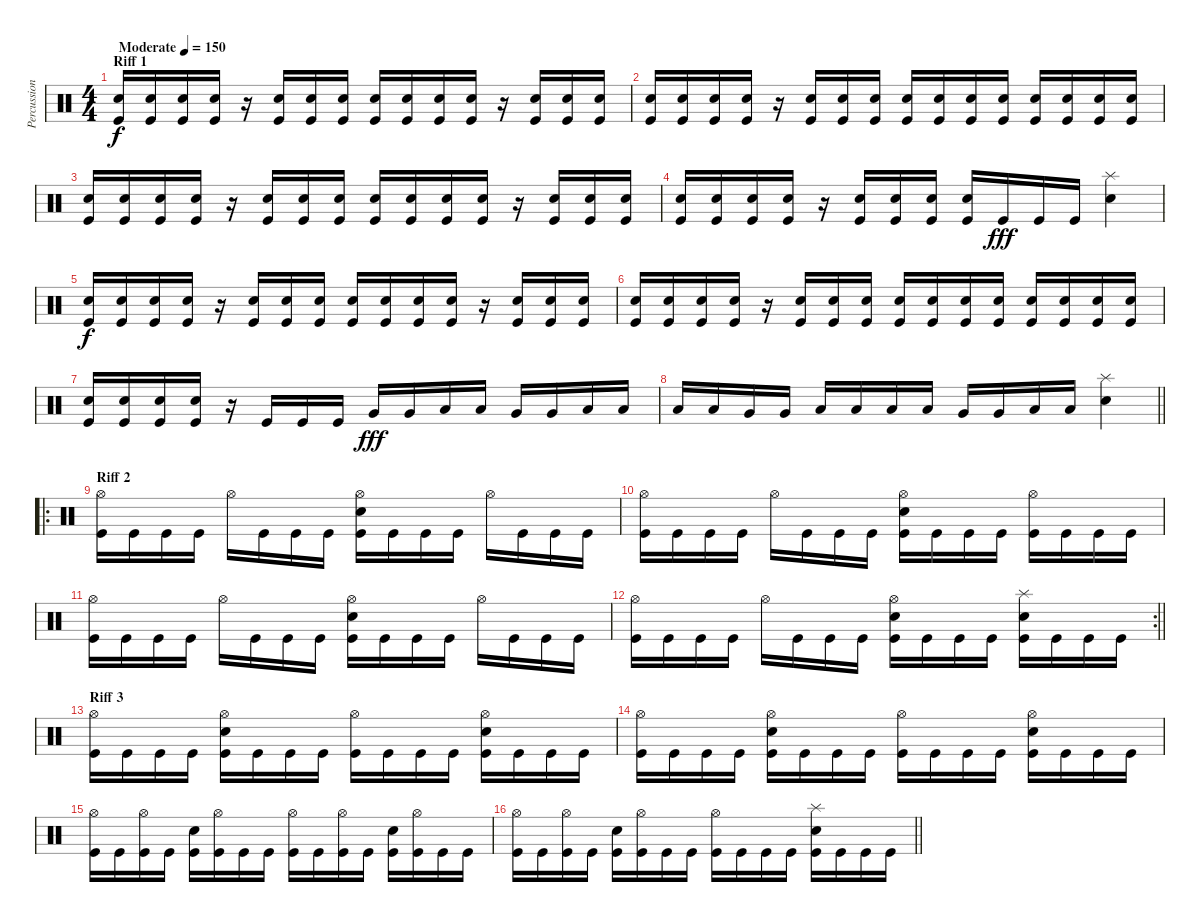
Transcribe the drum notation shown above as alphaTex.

\track ("Percussion" "Percussion") {instrument percussion}
\staff {score}
\articulation defaults
\ts (4 4)
\section ("" "Riff 1")
\tempo (150 "Moderate")
\clef neutral
\ks c
("Electric Snare (hit)" "Kick (hit)").16{dy f} ("Electric Snare (hit)" "Kick (hit)").16 ("Electric Snare (hit)" "Kick (hit)").16 ("Electric Snare (hit)" "Kick (hit)").16 r.16 ("Electric Snare (hit)" "Kick (hit)").16 ("Electric Snare (hit)" "Kick (hit)").16 ("Electric Snare (hit)" "Kick (hit)").16 ("Electric Snare (hit)" "Kick (hit)").16 ("Electric Snare (hit)" "Kick (hit)").16 ("Electric Snare (hit)" "Kick (hit)").16 ("Electric Snare (hit)" "Kick (hit)").16 r.16 ("Electric Snare (hit)" "Kick (hit)").16 ("Electric Snare (hit)" "Kick (hit)").16 ("Electric Snare (hit)" "Kick (hit)").16 |
("Electric Snare (hit)" "Kick (hit)").16 ("Electric Snare (hit)" "Kick (hit)").16 ("Electric Snare (hit)" "Kick (hit)").16 ("Electric Snare (hit)" "Kick (hit)").16 r.16 ("Electric Snare (hit)" "Kick (hit)").16 ("Electric Snare (hit)" "Kick (hit)").16 ("Electric Snare (hit)" "Kick (hit)").16 ("Electric Snare (hit)" "Kick (hit)").16 ("Electric Snare (hit)" "Kick (hit)").16 ("Electric Snare (hit)" "Kick (hit)").16 ("Electric Snare (hit)" "Kick (hit)").16 ("Electric Snare (hit)" "Kick (hit)").16 ("Electric Snare (hit)" "Kick (hit)").16 ("Electric Snare (hit)" "Kick (hit)").16 ("Electric Snare (hit)" "Kick (hit)").16 |
("Electric Snare (hit)" "Kick (hit)").16 ("Electric Snare (hit)" "Kick (hit)").16 ("Electric Snare (hit)" "Kick (hit)").16 ("Electric Snare (hit)" "Kick (hit)").16 r.16 ("Electric Snare (hit)" "Kick (hit)").16 ("Electric Snare (hit)" "Kick (hit)").16 ("Electric Snare (hit)" "Kick (hit)").16 ("Electric Snare (hit)" "Kick (hit)").16 ("Electric Snare (hit)" "Kick (hit)").16 ("Electric Snare (hit)" "Kick (hit)").16 ("Electric Snare (hit)" "Kick (hit)").16 r.16 ("Electric Snare (hit)" "Kick (hit)").16 ("Electric Snare (hit)" "Kick (hit)").16 ("Electric Snare (hit)" "Kick (hit)").16 |
("Electric Snare (hit)" "Kick (hit)").16 ("Electric Snare (hit)" "Kick (hit)").16 ("Electric Snare (hit)" "Kick (hit)").16 ("Electric Snare (hit)" "Kick (hit)").16 r.16 ("Electric Snare (hit)" "Kick (hit)").16 ("Electric Snare (hit)" "Kick (hit)").16 ("Electric Snare (hit)" "Kick (hit)").16 ("Electric Snare (hit)" "Kick (hit)").16 "Kick (hit)".16{dy fff} "Kick (hit)".16 "Kick (hit)".16 ("Splash (hit)" "Electric Snare (hit)").4 |
("Electric Snare (hit)" "Kick (hit)").16{dy f} ("Electric Snare (hit)" "Kick (hit)").16 ("Electric Snare (hit)" "Kick (hit)").16 ("Electric Snare (hit)" "Kick (hit)").16 r.16 ("Electric Snare (hit)" "Kick (hit)").16 ("Electric Snare (hit)" "Kick (hit)").16 ("Electric Snare (hit)" "Kick (hit)").16 ("Electric Snare (hit)" "Kick (hit)").16 ("Electric Snare (hit)" "Kick (hit)").16 ("Electric Snare (hit)" "Kick (hit)").16 ("Electric Snare (hit)" "Kick (hit)").16 r.16 ("Electric Snare (hit)" "Kick (hit)").16 ("Electric Snare (hit)" "Kick (hit)").16 ("Electric Snare (hit)" "Kick (hit)").16 |
("Electric Snare (hit)" "Kick (hit)").16 ("Electric Snare (hit)" "Kick (hit)").16 ("Electric Snare (hit)" "Kick (hit)").16 ("Electric Snare (hit)" "Kick (hit)").16 r.16 ("Electric Snare (hit)" "Kick (hit)").16 ("Electric Snare (hit)" "Kick (hit)").16 ("Electric Snare (hit)" "Kick (hit)").16 ("Electric Snare (hit)" "Kick (hit)").16 ("Electric Snare (hit)" "Kick (hit)").16 ("Electric Snare (hit)" "Kick (hit)").16 ("Electric Snare (hit)" "Kick (hit)").16 ("Electric Snare (hit)" "Kick (hit)").16 ("Electric Snare (hit)" "Kick (hit)").16 ("Electric Snare (hit)" "Kick (hit)").16 ("Electric Snare (hit)" "Kick (hit)").16 |
("Electric Snare (hit)" "Kick (hit)").16 ("Electric Snare (hit)" "Kick (hit)").16 ("Electric Snare (hit)" "Kick (hit)").16 ("Electric Snare (hit)" "Kick (hit)").16 r.16 "Kick (hit)".16 "Kick (hit)".16 "Kick (hit)".16 "Very Low Tom (hit)".16{dy fff} "Very Low Tom (hit)".16 "Low Floor Tom (hit)".16 "Low Floor Tom (hit)".16 "Very Low Tom (hit)".16 "Very Low Tom (hit)".16 "Low Floor Tom (hit)".16 "Low Floor Tom (hit)".16 |
\barLineRight lightlight "Low Tom (hit)".16 "Low Tom (hit)".16 "Very Low Tom (hit)".16 "Very Low Tom (hit)".16 "Low Floor Tom (hit)".16 "Low Floor Tom (hit)".16 "Low Tom (hit)".16 "Low Tom (hit)".16 "Very Low Tom (hit)".16 "Very Low Tom (hit)".16 "Low Floor Tom (hit)".16 "Low Floor Tom (hit)".16
("Splash (hit)" "Electric Snare (hit)").4 |
\ro
\section ("" "Riff 2")
("Hi-Hat (open)" "Kick (hit)").16 "Kick (hit)".16 "Kick (hit)".16 "Kick (hit)".16 "Hi-Hat (open)".16 "Kick (hit)".16 "Kick (hit)".16 "Kick (hit)".16 ("Hi-Hat (open)" "Electric Snare (hit)" "Kick (hit)").16 "Kick (hit)".16 "Kick (hit)".16 "Kick (hit)".16 "Hi-Hat (open)".16 "Kick (hit)".16 "Kick (hit)".16 "Kick (hit)".16 |
("Hi-Hat (open)" "Kick (hit)").16 "Kick (hit)".16 "Kick (hit)".16 "Kick (hit)".16 "Hi-Hat (open)".16 "Kick (hit)".16 "Kick (hit)".16 "Kick (hit)".16 ("Hi-Hat (open)" "Electric Snare (hit)" "Kick (hit)").16 "Kick (hit)".16 "Kick (hit)".16 "Kick (hit)".16 ("Hi-Hat (open)" "Kick (hit)").16 "Kick (hit)".16 "Kick (hit)".16 "Kick (hit)".16 |
("Hi-Hat (open)" "Kick (hit)").16 "Kick (hit)".16 "Kick (hit)".16 "Kick (hit)".16 "Hi-Hat (open)".16 "Kick (hit)".16 "Kick (hit)".16 "Kick (hit)".16 ("Hi-Hat (open)" "Electric Snare (hit)" "Kick (hit)").16 "Kick (hit)".16 "Kick (hit)".16 "Kick (hit)".16 "Hi-Hat (open)".16 "Kick (hit)".16 "Kick (hit)".16 "Kick (hit)".16 |
\rc 2
\barLineRight lightlight
("Hi-Hat (open)" "Kick (hit)").16 "Kick (hit)".16 "Kick (hit)".16 "Kick (hit)".16 "Hi-Hat (open)".16 "Kick (hit)".16 "Kick (hit)".16 "Kick (hit)".16 ("Hi-Hat (open)" "Electric Snare (hit)" "Kick (hit)").16 "Kick (hit)".16 "Kick (hit)".16 "Kick (hit)".16 ("Splash (hit)" "Electric Snare (hit)" "Kick (hit)").16 "Kick (hit)".16 "Kick (hit)".16 "Kick (hit)".16 |
\section ("" "Riff 3")
("Hi-Hat (open)" "Kick (hit)").16 "Kick (hit)".16 "Kick (hit)".16 "Kick (hit)".16 ("Hi-Hat (open)" "Electric Snare (hit)" "Kick (hit)").16 "Kick (hit)".16 "Kick (hit)".16 "Kick (hit)".16 ("Hi-Hat (open)" "Kick (hit)").16 "Kick (hit)".16 "Kick (hit)".16 "Kick (hit)".16 ("Hi-Hat (open)" "Electric Snare (hit)" "Kick (hit)").16 "Kick (hit)".16 "Kick (hit)".16 "Kick (hit)".16 |
("Hi-Hat (open)" "Kick (hit)").16 "Kick (hit)".16 "Kick (hit)".16 "Kick (hit)".16 ("Hi-Hat (open)" "Electric Snare (hit)" "Kick (hit)").16 "Kick (hit)".16 "Kick (hit)".16 "Kick (hit)".16 ("Hi-Hat (open)" "Kick (hit)").16 "Kick (hit)".16 "Kick (hit)".16 "Kick (hit)".16 ("Hi-Hat (open)" "Electric Snare (hit)" "Kick (hit)").16 "Kick (hit)".16 "Kick (hit)".16 "Kick (hit)".16 |
("Hi-Hat (open)" "Kick (hit)").16 "Kick (hit)".16 ("Hi-Hat (open)" "Kick (hit)").16 "Kick (hit)".16 ("Electric Snare (hit)" "Kick (hit)").16 ("Hi-Hat (open)" "Kick (hit)").16 "Kick (hit)".16 "Kick (hit)".16 ("Hi-Hat (open)" "Kick (hit)").16 "Kick (hit)".16 ("Hi-Hat (open)" "Kick (hit)").16 "Kick (hit)".16 ("Electric Snare (hit)" "Kick (hit)").16 ("Hi-Hat (open)" "Kick (hit)").16 "Kick (hit)".16 "Kick (hit)".16 |
\barLineRight lightlight
("Hi-Hat (open)" "Kick (hit)").16 "Kick (hit)".16 ("Hi-Hat (open)" "Kick (hit)").16 "Kick (hit)".16 ("Electric Snare (hit)" "Kick (hit)").16 ("Hi-Hat (open)" "Kick (hit)").16 "Kick (hit)".16 "Kick (hit)".16 ("Hi-Hat (open)" "Kick (hit)").16 "Kick (hit)".16 "Kick (hit)".16 "Kick (hit)".16 ("Splash (hit)" "Electric Snare (hit)" "Kick (hit)").16 "Kick (hit)".16 "Kick (hit)".16 "Kick (hit)".16
